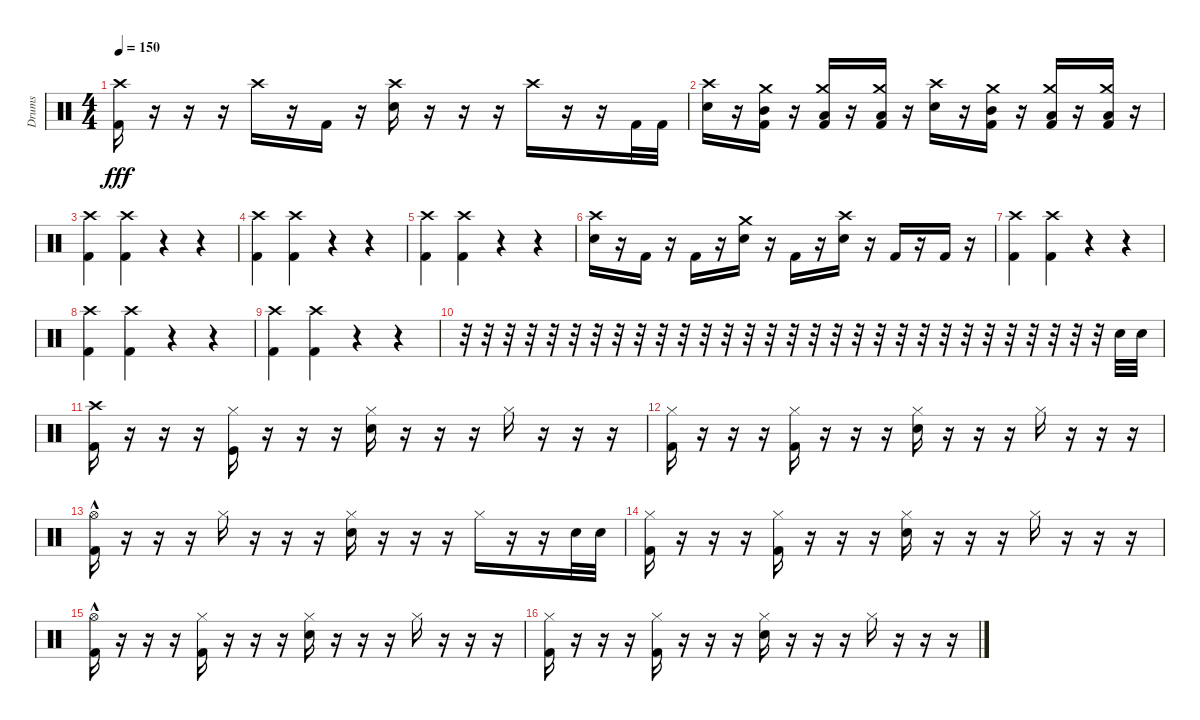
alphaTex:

\track ("Drums" "Drums") {instrument percussion}
\staff {score}
\articulation defaults
\ts (4 4)
\tempo 150
\clef neutral
\ks c
("Crash high (hit)" "Kick (hit) 2").16{dy fff} r.16 r.16 r.16 "Crash high (hit)".16 r.16 "Kick (hit) 2".16 r.16 ("Crash high (hit)" "Electric Snare (hit)").16 r.16 r.16 r.16 "Crash high (hit)".16 r.16 r.16 "Kick (hit) 2".32 "Kick (hit) 2".32 |
("Crash high (hit)" "Electric Snare (hit)").16 r.16 ("Crash medium (hit)" "Mid Tom (hit)" "Kick (hit) 2").16 r.16 ("Crash medium (hit)" "Low Tom (hit)" "Kick (hit) 2").16 r.16 ("Crash medium (hit)" "Low Tom (hit)" "Kick (hit) 2").16 r.16 ("Crash high (hit)" "Electric Snare (hit)").16 r.16 ("Crash medium (hit)" "Mid Tom (hit)" "Kick (hit) 2").16 r.16 ("Crash medium (hit)" "Low Tom (hit)" "Kick (hit) 2").16 r.16 ("Crash medium (hit)" "Low Tom (hit)" "Kick (hit) 2").16 r.16 |
("Crash high (hit)" "Kick (hit) 2").4 ("Crash high (hit)" "Kick (hit) 2").4 r.4{volume 0} r.4 |
("Crash high (hit)" "Kick (hit) 2").4{volume 16} ("Crash high (hit)" "Kick (hit) 2").4 r.4{volume 0} r.4 |
("Crash high (hit)" "Kick (hit) 2").4{volume 16} ("Crash high (hit)" "Kick (hit) 2").4 r.4{volume 0} r.4 |
("Crash high (hit)" "Electric Snare (hit)").16{volume 16} r.16 "Kick (hit) 2".16 r.16 "Kick (hit) 2".16 r.16 ("Crash medium (hit)" "Electric Snare (hit)").16 r.16 "Kick (hit) 2".16 r.16 ("Crash high (hit)" "Electric Snare (hit)").16 r.16 "Kick (hit) 2".16 r.16 "Kick (hit) 2".16 r.16 |
("Crash high (hit)" "Kick (hit) 2").4{volume 16} ("Crash high (hit)" "Kick (hit) 2").4 r.4{volume 0} r.4 |
("Crash high (hit)" "Kick (hit) 2").4{volume 16} ("Crash high (hit)" "Kick (hit) 2").4 r.4{volume 0} r.4 |
("Crash high (hit)" "Kick (hit) 2").4{volume 16} ("Crash high (hit)" "Kick (hit) 2").4 r.4{volume 0} r.4 |
r.32 r.32 r.32 r.32 r.32 r.32 r.32 r.32 r.32 r.32 r.32 r.32 r.32 r.32 r.32 r.32 r.32 r.32 r.32 r.32 r.32 r.32 r.32 r.32 r.32 r.32 r.32 r.32 r.32 r.32{volume 16} "Electric Snare (hit)".32 "Electric Snare (hit)".32 |
("Crash high (hit)" "Kick (hit) 2").16 r.16 r.16 r.16 ("Hi-Hat (closed)" "Kick (hit)").16 r.16 r.16 r.16 ("Hi-Hat (closed)" "Electric Snare (hit)").16 r.16 r.16 r.16 "Hi-Hat (closed)".16 r.16 r.16 r.16 |
("Hi-Hat (closed)" "Kick (hit) 2").16 r.16 r.16 r.16 ("Hi-Hat (closed)" "Kick (hit) 2").16 r.16 r.16 r.16 ("Hi-Hat (closed)" "Electric Snare (hit)").16 r.16 r.16 r.16 "Hi-Hat (closed)".16 r.16 r.16 r.16 |
("Hi-Hat (open)"{hac} "Kick (hit) 2").16 r.16 r.16 r.16 "Hi-Hat (closed)".16 r.16 r.16 r.16 ("Hi-Hat (closed)" "Electric Snare (hit)").16 r.16 r.16 r.16 "Hi-Hat (closed)".16 r.16 r.16 "Electric Snare (hit)".32 "Electric Snare (hit)".32 |
("Hi-Hat (closed)" "Kick (hit) 2").16 r.16 r.16 r.16 ("Hi-Hat (closed)" "Kick (hit) 2").16 r.16 r.16 r.16 ("Hi-Hat (closed)" "Electric Snare (hit)").16 r.16 r.16 r.16 "Hi-Hat (closed)".16 r.16 r.16 r.16 |
("Hi-Hat (open)"{hac} "Kick (hit) 2").16 r.16 r.16 r.16 ("Hi-Hat (closed)" "Kick (hit) 2").16 r.16 r.16 r.16 ("Hi-Hat (closed)" "Electric Snare (hit)").16 r.16 r.16 r.16 "Hi-Hat (closed)".16 r.16 r.16 r.16 |
("Hi-Hat (closed)" "Kick (hit) 2").16 r.16 r.16 r.16 ("Hi-Hat (closed)" "Kick (hit) 2").16 r.16 r.16 r.16 ("Hi-Hat (closed)" "Electric Snare (hit)").16 r.16 r.16 r.16 "Hi-Hat (closed)".16 r.16 r.16 r.16
